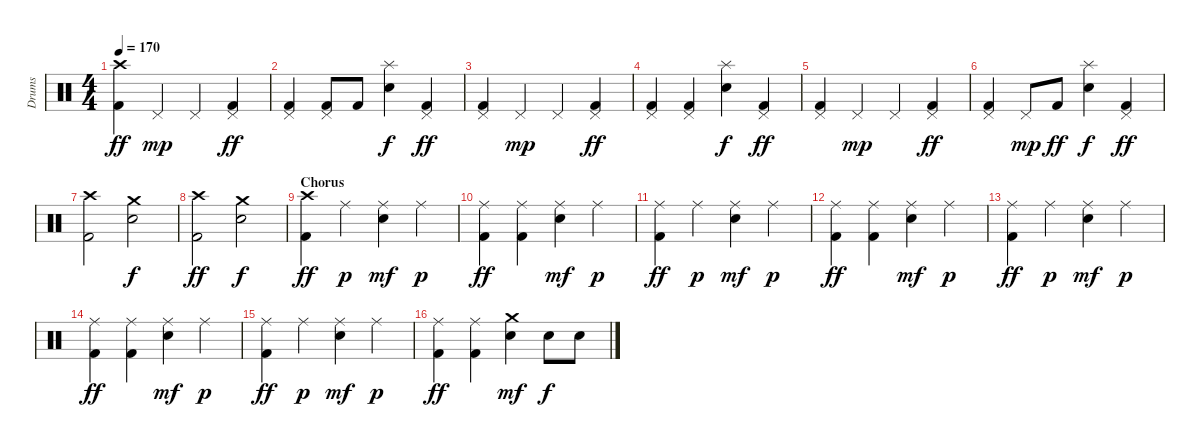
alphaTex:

\track ("Drums" "Drums") {instrument percussion}
\staff {score}
\articulation defaults
\ts (4 4)
\section ("" "")
\tempo 170
\clef neutral
\ks c
("Crash high (hit)" "Kick (hit) 2").4{dy ff} "Pedal Hi-Hat (hit)".4{dy mp} "Pedal Hi-Hat (hit)".4 ("Pedal Hi-Hat (hit)" "Kick (hit) 2").4{dy ff} |
("Pedal Hi-Hat (hit)" "Kick (hit) 2").4 ("Pedal Hi-Hat (hit)" "Kick (hit) 2").8 "Kick (hit) 2".8 ("Splash (hit)" "Electric Snare (hit)").4{dy f} ("Pedal Hi-Hat (hit)" "Kick (hit) 2").4{dy ff} |
("Pedal Hi-Hat (hit)" "Kick (hit) 2").4 "Pedal Hi-Hat (hit)".4{dy mp} "Pedal Hi-Hat (hit)".4 ("Pedal Hi-Hat (hit)" "Kick (hit) 2").4{dy ff} |
("Pedal Hi-Hat (hit)" "Kick (hit) 2").4 ("Pedal Hi-Hat (hit)" "Kick (hit) 2").4 ("Splash (hit)" "Electric Snare (hit)").4{dy f} ("Pedal Hi-Hat (hit)" "Kick (hit) 2").4{dy ff} |
("Pedal Hi-Hat (hit)" "Kick (hit) 2").4 "Pedal Hi-Hat (hit)".4{dy mp} "Pedal Hi-Hat (hit)".4 ("Pedal Hi-Hat (hit)" "Kick (hit) 2").4{dy ff} |
("Pedal Hi-Hat (hit)" "Kick (hit) 2").4 "Pedal Hi-Hat (hit)".8{dy mp} "Kick (hit) 2".8{dy ff} ("Splash (hit)" "Electric Snare (hit)").4{dy f} ("Pedal Hi-Hat (hit)" "Kick (hit) 2").4{dy ff} |
("Crash high (hit)" "Kick (hit) 2").2 ("Crash medium (hit)" "Electric Snare (hit)").2{dy f} |
("Crash high (hit)" "Kick (hit) 2").2{dy ff} ("Crash medium (hit)" "Electric Snare (hit)").2{dy f} |
\section ("" "Chorus")
("Crash high (hit)" "Kick (hit) 2").4{dy ff} "Ride (middle)".4{dy p} ("Ride (middle)" "Electric Snare (hit)").4{dy mf} "Ride (middle)".4{dy p} |
("Ride (middle)" "Kick (hit) 2").4{dy ff} ("Ride (middle)" "Kick (hit) 2").4 ("Ride (middle)" "Electric Snare (hit)").4{dy mf} "Ride (middle)".4{dy p} |
("Ride (middle)" "Kick (hit) 2").4{dy ff} "Ride (middle)".4{dy p} ("Ride (middle)" "Electric Snare (hit)").4{dy mf} "Ride (middle)".4{dy p} |
("Ride (middle)" "Kick (hit) 2").4{dy ff} ("Ride (middle)" "Kick (hit) 2").4 ("Ride (middle)" "Electric Snare (hit)").4{dy mf} "Ride (middle)".4{dy p} |
("Ride (middle)" "Kick (hit) 2").4{dy ff} "Ride (middle)".4{dy p} ("Ride (middle)" "Electric Snare (hit)").4{dy mf} "Ride (middle)".4{dy p} |
("Ride (middle)" "Kick (hit) 2").4{dy ff} ("Ride (middle)" "Kick (hit) 2").4 ("Ride (middle)" "Electric Snare (hit)").4{dy mf} "Ride (middle)".4{dy p} |
("Ride (middle)" "Kick (hit) 2").4{dy ff} "Ride (middle)".4{dy p} ("Ride (middle)" "Electric Snare (hit)").4{dy mf} "Ride (middle)".4{dy p} |
("Ride (middle)" "Kick (hit) 2").4{dy ff} ("Ride (middle)" "Kick (hit) 2").4 ("Crash medium (hit)" "Electric Snare (hit)").4{dy mf} "Electric Snare (hit)".8{dy f} "Electric Snare (hit)".8
